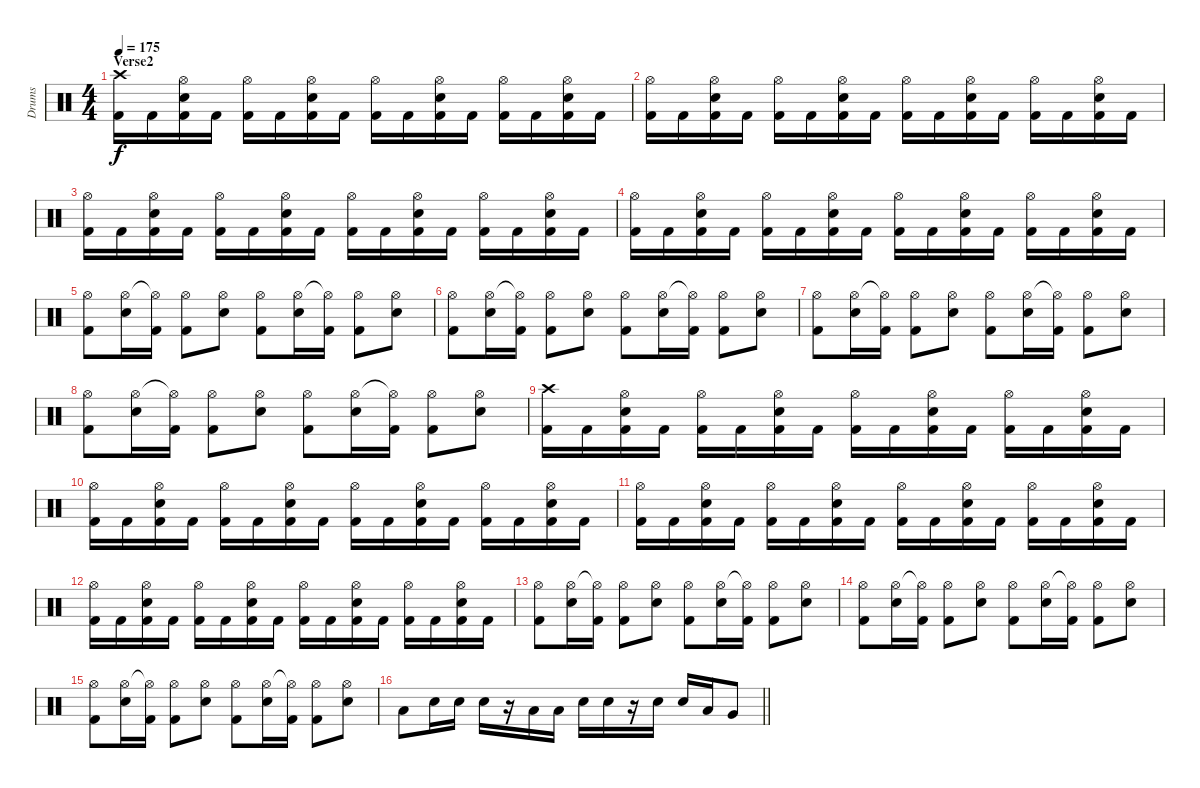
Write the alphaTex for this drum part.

\track ("Drums" "Drums") {instrument percussion}
\staff {score}
\articulation defaults
\ts (4 4)
\section ("" "Verse2")
\tempo 175
\clef neutral
\ks c
("Crash high (hit)" "Kick (hit) 2").16{dy f} "Kick (hit) 2".16 ("Hi-Hat (open)" "Electric Snare (hit)" "Kick (hit) 2").16 "Kick (hit) 2".16 ("Hi-Hat (open)" "Kick (hit) 2").16 "Kick (hit) 2".16 ("Hi-Hat (open)" "Electric Snare (hit)" "Kick (hit) 2").16 "Kick (hit) 2".16 ("Hi-Hat (open)" "Kick (hit) 2").16 "Kick (hit) 2".16 ("Hi-Hat (open)" "Electric Snare (hit)" "Kick (hit) 2").16 "Kick (hit) 2".16 ("Hi-Hat (open)" "Kick (hit) 2").16 "Kick (hit) 2".16 ("Hi-Hat (open)" "Electric Snare (hit)" "Kick (hit) 2").16 "Kick (hit) 2".16 |
("Hi-Hat (open)" "Kick (hit) 2").16 "Kick (hit) 2".16 ("Hi-Hat (open)" "Electric Snare (hit)" "Kick (hit) 2").16 "Kick (hit) 2".16 ("Hi-Hat (open)" "Kick (hit) 2").16 "Kick (hit) 2".16 ("Hi-Hat (open)" "Electric Snare (hit)" "Kick (hit) 2").16 "Kick (hit) 2".16 ("Hi-Hat (open)" "Kick (hit) 2").16 "Kick (hit) 2".16 ("Hi-Hat (open)" "Electric Snare (hit)" "Kick (hit) 2").16 "Kick (hit) 2".16 ("Hi-Hat (open)" "Kick (hit) 2").16 "Kick (hit) 2".16 ("Hi-Hat (open)" "Electric Snare (hit)" "Kick (hit) 2").16 "Kick (hit) 2".16 |
("Hi-Hat (open)" "Kick (hit) 2").16 "Kick (hit) 2".16 ("Hi-Hat (open)" "Electric Snare (hit)" "Kick (hit) 2").16 "Kick (hit) 2".16 ("Hi-Hat (open)" "Kick (hit) 2").16 "Kick (hit) 2".16 ("Hi-Hat (open)" "Electric Snare (hit)" "Kick (hit) 2").16 "Kick (hit) 2".16 ("Hi-Hat (open)" "Kick (hit) 2").16 "Kick (hit) 2".16 ("Hi-Hat (open)" "Electric Snare (hit)" "Kick (hit) 2").16 "Kick (hit) 2".16 ("Hi-Hat (open)" "Kick (hit) 2").16 "Kick (hit) 2".16 ("Hi-Hat (open)" "Electric Snare (hit)" "Kick (hit) 2").16 "Kick (hit) 2".16 |
("Hi-Hat (open)" "Kick (hit) 2").16 "Kick (hit) 2".16 ("Hi-Hat (open)" "Electric Snare (hit)" "Kick (hit) 2").16 "Kick (hit) 2".16 ("Hi-Hat (open)" "Kick (hit) 2").16 "Kick (hit) 2".16 ("Hi-Hat (open)" "Electric Snare (hit)" "Kick (hit) 2").16 "Kick (hit) 2".16 ("Hi-Hat (open)" "Kick (hit) 2").16 "Kick (hit) 2".16 ("Hi-Hat (open)" "Electric Snare (hit)" "Kick (hit) 2").16 "Kick (hit) 2".16 ("Hi-Hat (open)" "Kick (hit) 2").16 "Kick (hit) 2".16 ("Hi-Hat (open)" "Electric Snare (hit)" "Kick (hit) 2").16 "Kick (hit) 2".16 |
("Hi-Hat (open)" "Kick (hit) 2").8 ("Hi-Hat (open)" "Electric Snare (hit)").16 ("Hi-Hat (open)"{t} "Kick (hit) 2").16 ("Hi-Hat (open)" "Kick (hit) 2").8 ("Hi-Hat (open)" "Electric Snare (hit)").8 ("Hi-Hat (open)" "Kick (hit) 2").8 ("Hi-Hat (open)" "Electric Snare (hit)").16 ("Hi-Hat (open)"{t} "Kick (hit) 2").16 ("Hi-Hat (open)" "Kick (hit) 2").8 ("Hi-Hat (open)" "Electric Snare (hit)").8 |
("Hi-Hat (open)" "Kick (hit) 2").8 ("Hi-Hat (open)" "Electric Snare (hit)").16 ("Hi-Hat (open)"{t} "Kick (hit) 2").16 ("Hi-Hat (open)" "Kick (hit) 2").8 ("Hi-Hat (open)" "Electric Snare (hit)").8 ("Hi-Hat (open)" "Kick (hit) 2").8 ("Hi-Hat (open)" "Electric Snare (hit)").16 ("Hi-Hat (open)"{t} "Kick (hit) 2").16 ("Hi-Hat (open)" "Kick (hit) 2").8 ("Hi-Hat (open)" "Electric Snare (hit)").8 |
("Hi-Hat (open)" "Kick (hit) 2").8 ("Hi-Hat (open)" "Electric Snare (hit)").16 ("Hi-Hat (open)"{t} "Kick (hit) 2").16 ("Hi-Hat (open)" "Kick (hit) 2").8 ("Hi-Hat (open)" "Electric Snare (hit)").8 ("Hi-Hat (open)" "Kick (hit) 2").8 ("Hi-Hat (open)" "Electric Snare (hit)").16 ("Hi-Hat (open)"{t} "Kick (hit) 2").16 ("Hi-Hat (open)" "Kick (hit) 2").8 ("Hi-Hat (open)" "Electric Snare (hit)").8 |
("Hi-Hat (open)" "Kick (hit) 2").8 ("Hi-Hat (open)" "Electric Snare (hit)").16 ("Hi-Hat (open)"{t} "Kick (hit) 2").16 ("Hi-Hat (open)" "Kick (hit) 2").8 ("Hi-Hat (open)" "Electric Snare (hit)").8 ("Hi-Hat (open)" "Kick (hit) 2").8 ("Hi-Hat (open)" "Electric Snare (hit)").16 ("Hi-Hat (open)"{t} "Kick (hit) 2").16 ("Hi-Hat (open)" "Kick (hit) 2").8 ("Hi-Hat (open)" "Electric Snare (hit)").8 |
("Crash high (hit)" "Kick (hit) 2").16 "Kick (hit) 2".16 ("Hi-Hat (open)" "Electric Snare (hit)" "Kick (hit) 2").16 "Kick (hit) 2".16 ("Hi-Hat (open)" "Kick (hit) 2").16 "Kick (hit) 2".16 ("Hi-Hat (open)" "Electric Snare (hit)" "Kick (hit) 2").16 "Kick (hit) 2".16 ("Hi-Hat (open)" "Kick (hit) 2").16 "Kick (hit) 2".16 ("Hi-Hat (open)" "Electric Snare (hit)" "Kick (hit) 2").16 "Kick (hit) 2".16 ("Hi-Hat (open)" "Kick (hit) 2").16 "Kick (hit) 2".16 ("Hi-Hat (open)" "Electric Snare (hit)" "Kick (hit) 2").16 "Kick (hit) 2".16 |
("Hi-Hat (open)" "Kick (hit) 2").16 "Kick (hit) 2".16 ("Hi-Hat (open)" "Electric Snare (hit)" "Kick (hit) 2").16 "Kick (hit) 2".16 ("Hi-Hat (open)" "Kick (hit) 2").16 "Kick (hit) 2".16 ("Hi-Hat (open)" "Electric Snare (hit)" "Kick (hit) 2").16 "Kick (hit) 2".16 ("Hi-Hat (open)" "Kick (hit) 2").16 "Kick (hit) 2".16 ("Hi-Hat (open)" "Electric Snare (hit)" "Kick (hit) 2").16 "Kick (hit) 2".16 ("Hi-Hat (open)" "Kick (hit) 2").16 "Kick (hit) 2".16 ("Hi-Hat (open)" "Electric Snare (hit)" "Kick (hit) 2").16 "Kick (hit) 2".16 |
("Hi-Hat (open)" "Kick (hit) 2").16 "Kick (hit) 2".16 ("Hi-Hat (open)" "Electric Snare (hit)" "Kick (hit) 2").16 "Kick (hit) 2".16 ("Hi-Hat (open)" "Kick (hit) 2").16 "Kick (hit) 2".16 ("Hi-Hat (open)" "Electric Snare (hit)" "Kick (hit) 2").16 "Kick (hit) 2".16 ("Hi-Hat (open)" "Kick (hit) 2").16 "Kick (hit) 2".16 ("Hi-Hat (open)" "Electric Snare (hit)" "Kick (hit) 2").16 "Kick (hit) 2".16 ("Hi-Hat (open)" "Kick (hit) 2").16 "Kick (hit) 2".16 ("Hi-Hat (open)" "Electric Snare (hit)" "Kick (hit) 2").16 "Kick (hit) 2".16 |
("Hi-Hat (open)" "Kick (hit) 2").16 "Kick (hit) 2".16 ("Hi-Hat (open)" "Electric Snare (hit)" "Kick (hit) 2").16 "Kick (hit) 2".16 ("Hi-Hat (open)" "Kick (hit) 2").16 "Kick (hit) 2".16 ("Hi-Hat (open)" "Electric Snare (hit)" "Kick (hit) 2").16 "Kick (hit) 2".16 ("Hi-Hat (open)" "Kick (hit) 2").16 "Kick (hit) 2".16 ("Hi-Hat (open)" "Electric Snare (hit)" "Kick (hit) 2").16 "Kick (hit) 2".16 ("Hi-Hat (open)" "Kick (hit) 2").16 "Kick (hit) 2".16 ("Hi-Hat (open)" "Electric Snare (hit)" "Kick (hit) 2").16 "Kick (hit) 2".16 |
("Hi-Hat (open)" "Kick (hit) 2").8 ("Hi-Hat (open)" "Electric Snare (hit)").16 ("Hi-Hat (open)"{t} "Kick (hit) 2").16 ("Hi-Hat (open)" "Kick (hit) 2").8 ("Hi-Hat (open)" "Electric Snare (hit)").8 ("Hi-Hat (open)" "Kick (hit) 2").8 ("Hi-Hat (open)" "Electric Snare (hit)").16 ("Hi-Hat (open)"{t} "Kick (hit) 2").16 ("Hi-Hat (open)" "Kick (hit) 2").8 ("Hi-Hat (open)" "Electric Snare (hit)").8 |
("Hi-Hat (open)" "Kick (hit) 2").8 ("Hi-Hat (open)" "Electric Snare (hit)").16 ("Hi-Hat (open)"{t} "Kick (hit) 2").16 ("Hi-Hat (open)" "Kick (hit) 2").8 ("Hi-Hat (open)" "Electric Snare (hit)").8 ("Hi-Hat (open)" "Kick (hit) 2").8 ("Hi-Hat (open)" "Electric Snare (hit)").16 ("Hi-Hat (open)"{t} "Kick (hit) 2").16 ("Hi-Hat (open)" "Kick (hit) 2").8 ("Hi-Hat (open)" "Electric Snare (hit)").8 |
("Hi-Hat (open)" "Kick (hit) 2").8 ("Hi-Hat (open)" "Electric Snare (hit)").16 ("Hi-Hat (open)"{t} "Kick (hit) 2").16 ("Hi-Hat (open)" "Kick (hit) 2").8 ("Hi-Hat (open)" "Electric Snare (hit)").8 ("Hi-Hat (open)" "Kick (hit) 2").8 ("Hi-Hat (open)" "Electric Snare (hit)").16 ("Hi-Hat (open)"{t} "Kick (hit) 2").16 ("Hi-Hat (open)" "Kick (hit) 2").8 ("Hi-Hat (open)" "Electric Snare (hit)").8 |
\barLineRight lightlight "Low Tom (hit)".8 "Electric Snare (hit)".16 "Electric Snare (hit)".16 "Electric Snare (hit)".16
r.16 "Low Tom (hit)".16 "Low Tom (hit)".16 "Electric Snare (hit)".16 "Electric Snare (hit)".16 r.16 "Electric Snare (hit)".16 "Electric Snare (hit)".16 "Low Tom (hit)".16 "Very Low Tom (hit)".8
